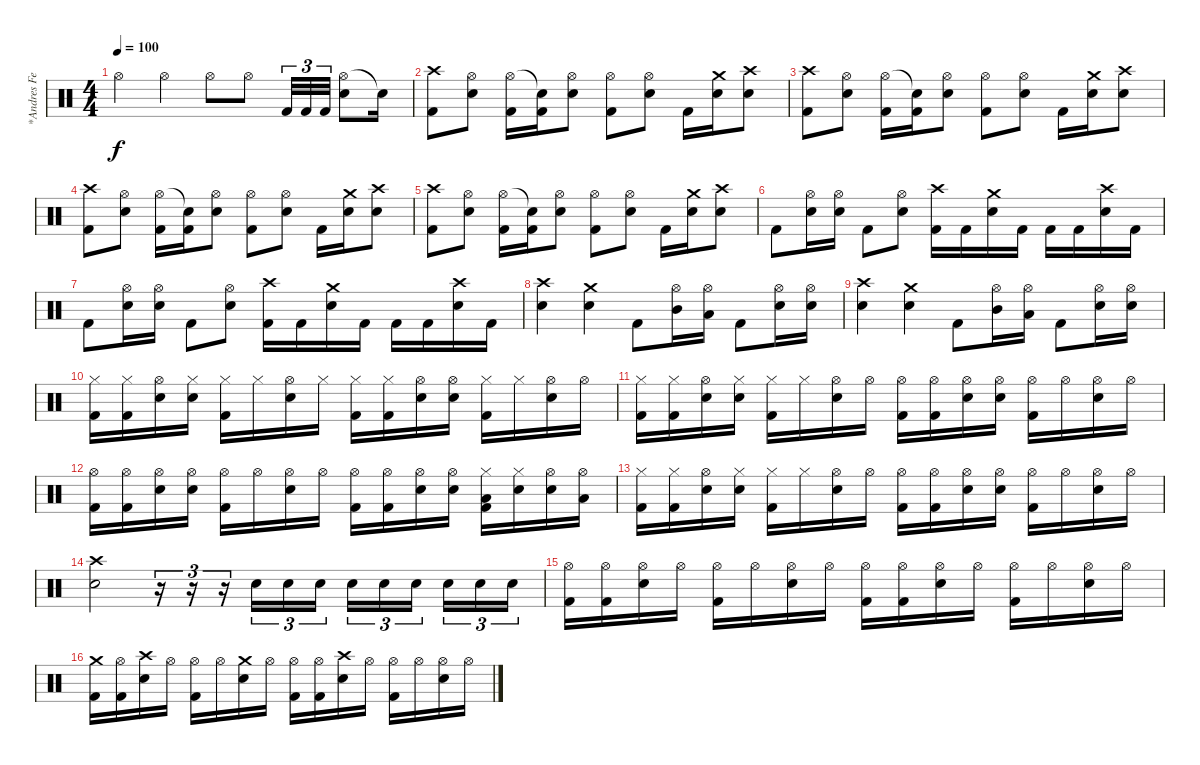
\track ("*Andres Felipe" "*Andres Fe") {instrument percussion}
\staff {score}
\articulation defaults
\ts (4 4)
\tempo 100
\clef neutral
\ks c "Hi-Hat (open)".4{dy f} "Hi-Hat (open)".4 "Hi-Hat (open)".8 "Hi-Hat (open)".8 "Kick (hit) 2".32{tu (3 2)} "Kick (hit) 2".32{tu (3 2)} "Kick (hit) 2".32{tu (3 2)}
("Hi-Hat (open)" "Electric Snare (hit)").8 "Snare (hit)"{t}.16 |
("Crash high (hit)" "Kick (hit) 2").8 ("Hi-Hat (open)" "Electric Snare (hit)").8 ("Hi-Hat (open)" "Kick (hit) 2").16 ("Snare (hit)"{t} "Kick (hit) 2").16 ("Hi-Hat (open)" "Electric Snare (hit)").8 ("Hi-Hat (open)" "Kick (hit) 2").8 ("Hi-Hat (open)" "Electric Snare (hit)").8 "Kick (hit) 2".16 ("Crash medium (hit)" "Electric Snare (hit)").16 ("Crash high (hit)" "Electric Snare (hit)").8 |
("Crash high (hit)" "Kick (hit) 2").8 ("Hi-Hat (open)" "Electric Snare (hit)").8 ("Hi-Hat (open)" "Kick (hit) 2").16 ("Snare (hit)"{t} "Kick (hit) 2").16 ("Hi-Hat (open)" "Electric Snare (hit)").8 ("Hi-Hat (open)" "Kick (hit) 2").8 ("Hi-Hat (open)" "Electric Snare (hit)").8 "Kick (hit) 2".16 ("Crash medium (hit)" "Electric Snare (hit)").16 ("Crash high (hit)" "Electric Snare (hit)").8 |
("Crash high (hit)" "Kick (hit) 2").8 ("Hi-Hat (open)" "Electric Snare (hit)").8 ("Hi-Hat (open)" "Kick (hit) 2").16 ("Snare (hit)"{t} "Kick (hit) 2").16 ("Hi-Hat (open)" "Electric Snare (hit)").8 ("Hi-Hat (open)" "Kick (hit) 2").8 ("Hi-Hat (open)" "Electric Snare (hit)").8 "Kick (hit) 2".16 ("Crash medium (hit)" "Electric Snare (hit)").16 ("Crash high (hit)" "Electric Snare (hit)").8 |
("Crash high (hit)" "Kick (hit) 2").8 ("Hi-Hat (open)" "Electric Snare (hit)").8 ("Hi-Hat (open)" "Kick (hit) 2").16 ("Snare (hit)"{t} "Kick (hit) 2").16 ("Hi-Hat (open)" "Electric Snare (hit)").8 ("Hi-Hat (open)" "Kick (hit) 2").8 ("Hi-Hat (open)" "Electric Snare (hit)").8 "Kick (hit) 2".16 ("Crash medium (hit)" "Electric Snare (hit)").16 ("Crash high (hit)" "Electric Snare (hit)").8 |
"Kick (hit) 2".8 ("Hi-Hat (open)" "Electric Snare (hit)").16 ("Hi-Hat (open)" "Electric Snare (hit)").16 "Kick (hit) 2".8 ("Hi-Hat (open)" "Electric Snare (hit)").8 ("Crash high (hit)" "Kick (hit) 2").16 "Kick (hit) 2".16 ("Crash medium (hit)" "Electric Snare (hit)").16 "Kick (hit) 2".16 "Kick (hit) 2".16 "Kick (hit) 2".16 ("Crash high (hit)" "Electric Snare (hit)").16 "Kick (hit) 2".16 |
"Kick (hit) 2".8 ("Hi-Hat (open)" "Electric Snare (hit)").16 ("Hi-Hat (open)" "Electric Snare (hit)").16 "Kick (hit) 2".8 ("Hi-Hat (open)" "Electric Snare (hit)").8 ("Crash high (hit)" "Kick (hit) 2").16 "Kick (hit) 2".16 ("Crash medium (hit)" "Electric Snare (hit)").16 "Kick (hit) 2".16 "Kick (hit) 2".16 "Kick (hit) 2".16 ("Crash high (hit)" "Electric Snare (hit)").16 "Kick (hit) 2".16 |
("Crash high (hit)" "Electric Snare (hit)").4 ("Crash medium (hit)" "Electric Snare (hit)").4 "Kick (hit) 2".8 ("Hi-Hat (open)" "Mid Tom (hit)").16 ("Hi-Hat (open)" "Low Tom (hit)").16 "Kick (hit) 2".8 ("Hi-Hat (open)" "Electric Snare (hit)").16 ("Hi-Hat (open)" "Electric Snare (hit)").16 |
("Crash high (hit)" "Electric Snare (hit)").4 ("Crash medium (hit)" "Electric Snare (hit)").4 "Kick (hit) 2".8 ("Hi-Hat (open)" "Mid Tom (hit)").16 ("Hi-Hat (open)" "Low Tom (hit)").16 "Kick (hit) 2".8 ("Hi-Hat (open)" "Electric Snare (hit)").16 ("Hi-Hat (open)" "Electric Snare (hit)").16 |
("Hi-Hat (closed)" "Kick (hit) 2").16 ("Hi-Hat (closed)" "Kick (hit) 2").16 ("Hi-Hat (open)" "Electric Snare (hit)").16 ("Hi-Hat (closed)" "Electric Snare (hit)").16 ("Hi-Hat (closed)" "Kick (hit) 2").16 "Hi-Hat (closed)".16 ("Hi-Hat (open)" "Electric Snare (hit)").16 "Hi-Hat (closed)".16 ("Hi-Hat (closed)" "Kick (hit) 2").16 ("Hi-Hat (closed)" "Kick (hit) 2").16 ("Hi-Hat (open)" "Electric Snare (hit)").16 ("Hi-Hat (open)" "Electric Snare (hit)").16 ("Hi-Hat (closed)" "Kick (hit) 2").16 "Hi-Hat (closed)".16 ("Hi-Hat (open)" "Electric Snare (hit)").16 "Hi-Hat (open)".16 |
("Hi-Hat (closed)" "Kick (hit) 2").16 ("Hi-Hat (closed)" "Kick (hit) 2").16 ("Hi-Hat (open)" "Electric Snare (hit)").16 ("Hi-Hat (closed)" "Electric Snare (hit)").16 ("Hi-Hat (closed)" "Kick (hit) 2").16 "Hi-Hat (closed)".16 ("Hi-Hat (open)" "Electric Snare (hit)").16 "Hi-Hat (open)".16 ("Hi-Hat (open)" "Kick (hit) 2").16 ("Hi-Hat (open)" "Kick (hit) 2").16 ("Hi-Hat (open)" "Electric Snare (hit)").16 ("Hi-Hat (open)" "Electric Snare (hit)").16 ("Hi-Hat (open)" "Kick (hit) 2").16 "Hi-Hat (open)".16 ("Hi-Hat (open)" "Electric Snare (hit)").16 "Hi-Hat (open)".16 |
("Hi-Hat (open)" "Kick (hit) 2").16 ("Hi-Hat (open)" "Kick (hit) 2").16 ("Hi-Hat (open)" "Electric Snare (hit)").16 ("Hi-Hat (open)" "Electric Snare (hit)").16 ("Hi-Hat (open)" "Kick (hit) 2").16 "Hi-Hat (open)".16 ("Hi-Hat (open)" "Electric Snare (hit)").16 "Hi-Hat (open)".16 ("Hi-Hat (open)" "Kick (hit) 2").16 ("Hi-Hat (open)" "Kick (hit) 2").16 ("Hi-Hat (open)" "Electric Snare (hit)").16 ("Hi-Hat (open)" "Electric Snare (hit)").16 ("Hi-Hat (closed)" "Low Tom (hit)" "Kick (hit) 2").16 ("Hi-Hat (closed)" "Electric Snare (hit)").16 ("Hi-Hat (open)" "Electric Snare (hit)").16 ("Hi-Hat (open)" "Low Tom (hit)").16 |
("Hi-Hat (closed)" "Kick (hit) 2").16 ("Hi-Hat (closed)" "Kick (hit) 2").16 ("Hi-Hat (open)" "Electric Snare (hit)").16 ("Hi-Hat (closed)" "Electric Snare (hit)").16 ("Hi-Hat (closed)" "Kick (hit) 2").16 "Hi-Hat (closed)".16 ("Hi-Hat (open)" "Electric Snare (hit)").16 "Hi-Hat (open)".16 ("Hi-Hat (open)" "Kick (hit) 2").16 ("Hi-Hat (open)" "Kick (hit) 2").16 ("Hi-Hat (open)" "Electric Snare (hit)").16 ("Hi-Hat (open)" "Electric Snare (hit)").16 ("Hi-Hat (open)" "Kick (hit) 2").16 "Hi-Hat (open)".16 ("Hi-Hat (open)" "Electric Snare (hit)").16 "Hi-Hat (open)".16 |
("Crash high (hit)" "Electric Snare (hit)").2 r.16{tu (3 2)} r.16{tu (3 2)} r.16{tu (3 2)} "Electric Snare (hit)".16{tu (3 2)} "Electric Snare (hit)".16{tu (3 2)} "Electric Snare (hit)".16{tu (3 2)} "Electric Snare (hit)".16{tu (3 2)} "Electric Snare (hit)".16{tu (3 2)} "Electric Snare (hit)".16{tu (3 2)} "Electric Snare (hit)".16{tu (3 2)} "Electric Snare (hit)".16{tu (3 2)} "Electric Snare (hit)".16{tu (3 2)} |
("Hi-Hat (open)" "Kick (hit) 2").16 ("Hi-Hat (open)" "Kick (hit) 2").16 ("Hi-Hat (open)" "Electric Snare (hit)").16 "Hi-Hat (open)".16 ("Hi-Hat (open)" "Kick (hit) 2").16 "Hi-Hat (open)".16 ("Hi-Hat (open)" "Electric Snare (hit)").16 "Hi-Hat (open)".16 ("Hi-Hat (open)" "Kick (hit) 2").16 ("Hi-Hat (open)" "Kick (hit) 2").16 ("Hi-Hat (open)" "Electric Snare (hit)").16 "Hi-Hat (open)".16 ("Hi-Hat (open)" "Kick (hit) 2").16 "Hi-Hat (open)".16 ("Hi-Hat (open)" "Electric Snare (hit)").16 "Hi-Hat (open)".16 |
("Crash medium (hit)" "Kick (hit) 2").16 ("Hi-Hat (open)" "Kick (hit) 2").16 ("Crash high (hit)" "Electric Snare (hit)").16 "Hi-Hat (open)".16 ("Hi-Hat (open)" "Kick (hit) 2").16 "Hi-Hat (open)".16 ("Crash medium (hit)" "Electric Snare (hit)").16 "Hi-Hat (open)".16 ("Hi-Hat (open)" "Kick (hit) 2").16 ("Hi-Hat (open)" "Kick (hit) 2").16 ("Crash high (hit)" "Electric Snare (hit)").16 "Hi-Hat (open)".16 ("Hi-Hat (open)" "Kick (hit) 2").16 "Hi-Hat (open)".16 ("Hi-Hat (open)" "Electric Snare (hit)").16 "Hi-Hat (open)".16
